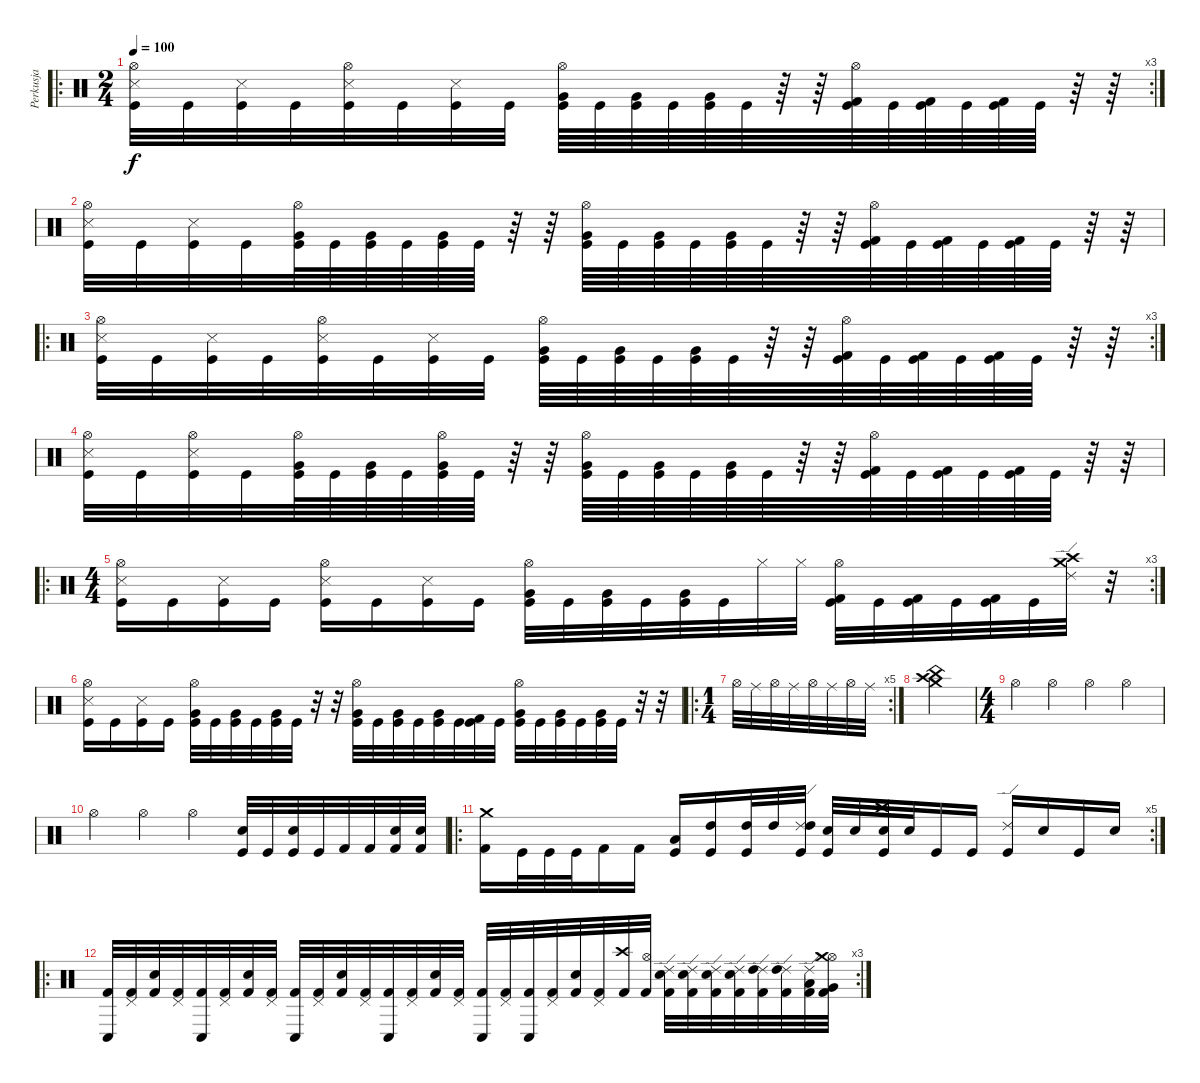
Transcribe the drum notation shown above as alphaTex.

\track ("Perkusja" "Perkusja") {instrument percussion}
\staff {score}
\articulation defaults
\ro
\rc 3
\ts (2 4)
\tempo 100
\clef neutral
\ks c
("Hi-Hat (open)" "Metronome (hit)" "Kick (hit)").32{dy f} "Kick (hit)".32 ("Metronome (hit)" "Kick (hit)").32 "Kick (hit)".32 ("Hi-Hat (open)" "Metronome (hit)" "Kick (hit)").32 "Kick (hit)".32 ("Metronome (hit)" "Kick (hit)").32 "Kick (hit)".32 ("Hi-Hat (open)" "Very Low Tom (hit)" "Kick (hit)").64 "Kick (hit)".64 ("Very Low Tom (hit)" "Kick (hit)").64 "Kick (hit)".64 ("Very Low Tom (hit)" "Kick (hit)").64 "Kick (hit)".64 r.64 r.64 ("Hi-Hat (open)" "Kick (hit) 2" "Kick (hit)").64 "Kick (hit)".64 ("Kick (hit) 2" "Kick (hit)").64 "Kick (hit)".64 ("Kick (hit) 2" "Kick (hit)").64 "Kick (hit)".64 r.64 r.64 |
("Hi-Hat (open)" "Metronome (hit)" "Kick (hit)").32 "Kick (hit)".32 ("Metronome (hit)" "Kick (hit)").32 "Kick (hit)".32 ("Hi-Hat (open)" "Very Low Tom (hit)" "Kick (hit)").64 "Kick (hit)".64 ("Very Low Tom (hit)" "Kick (hit)").64 "Kick (hit)".64 ("Very Low Tom (hit)" "Kick (hit)").64 "Kick (hit)".64 r.64 r.64 ("Hi-Hat (open)" "Very Low Tom (hit)" "Kick (hit)").64 "Kick (hit)".64 ("Very Low Tom (hit)" "Kick (hit)").64 "Kick (hit)".64 ("Very Low Tom (hit)" "Kick (hit)").64 "Kick (hit)".64 r.64 r.64 ("Hi-Hat (open)" "Kick (hit) 2" "Kick (hit)").64 "Kick (hit)".64 ("Kick (hit) 2" "Kick (hit)").64 "Kick (hit)".64 ("Kick (hit) 2" "Kick (hit)").64 "Kick (hit)".64 r.64 r.64 |
\ro
\rc 3
("Hi-Hat (open)" "Metronome (hit)" "Kick (hit)").32 "Kick (hit)".32 ("Metronome (hit)" "Kick (hit)").32 "Kick (hit)".32 ("Hi-Hat (open)" "Metronome (hit)" "Kick (hit)").32 "Kick (hit)".32 ("Metronome (hit)" "Kick (hit)").32 "Kick (hit)".32 ("Hi-Hat (open)" "Very Low Tom (hit)" "Kick (hit)").64 "Kick (hit)".64 ("Very Low Tom (hit)" "Kick (hit)").64 "Kick (hit)".64 ("Very Low Tom (hit)" "Kick (hit)").64 "Kick (hit)".64 r.64 r.64 ("Hi-Hat (open)" "Kick (hit) 2" "Kick (hit)").64 "Kick (hit)".64 ("Kick (hit) 2" "Kick (hit)").64 "Kick (hit)".64 ("Kick (hit) 2" "Kick (hit)").64 "Kick (hit)".64 r.64 r.64 |
("Hi-Hat (open)" "Metronome (hit)" "Kick (hit)").32 "Kick (hit)".32 ("Hi-Hat (open)" "Metronome (hit)" "Kick (hit)").32 "Kick (hit)".32 ("Hi-Hat (open)" "Very Low Tom (hit)" "Kick (hit)").64 "Kick (hit)".64 ("Very Low Tom (hit)" "Kick (hit)").64 "Kick (hit)".64 ("Hi-Hat (open)" "Very Low Tom (hit)" "Kick (hit)").64 "Kick (hit)".64 r.64 r.64 ("Hi-Hat (open)" "Very Low Tom (hit)" "Kick (hit)").64 "Kick (hit)".64 ("Very Low Tom (hit)" "Kick (hit)").64 "Kick (hit)".64 ("Very Low Tom (hit)" "Kick (hit)").64 "Kick (hit)".64 r.64 r.64 ("Hi-Hat (open)" "Kick (hit) 2" "Kick (hit)").64 "Kick (hit)".64 ("Kick (hit) 2" "Kick (hit)").64 "Kick (hit)".64 ("Kick (hit) 2" "Kick (hit)").64 "Kick (hit)".64 r.64 r.64 |
\ro
\rc 3
\ts (4 4)
("Hi-Hat (open)" "Metronome (hit)" "Kick (hit)").16 "Kick (hit)".16 ("Metronome (hit)" "Kick (hit)").16 "Kick (hit)".16 ("Hi-Hat (open)" "Metronome (hit)" "Kick (hit)").16 "Kick (hit)".16 ("Metronome (hit)" "Kick (hit)").16 "Kick (hit)".16 ("Hi-Hat (open)" "Very Low Tom (hit)" "Kick (hit)").32 "Kick (hit)".32 ("Very Low Tom (hit)" "Kick (hit)").32 "Kick (hit)".32 ("Very Low Tom (hit)" "Kick (hit)").32 "Kick (hit)".32 "Hi-Hat (closed)".32 "Hi-Hat (closed)".32 ("Hi-Hat (open)" "Kick (hit) 2" "Kick (hit)").32 "Kick (hit)".32 ("Kick (hit) 2" "Kick (hit)").32 "Kick (hit)".32 ("Kick (hit) 2" "Kick (hit)").32 "Kick (hit)".32 ("Ride (edge) 2" "Crash high (hit)" "Crash medium (hit)").32 r.32 |
("Hi-Hat (open)" "Metronome (hit)" "Kick (hit)").16 "Kick (hit)".16 ("Metronome (hit)" "Kick (hit)").16 "Kick (hit)".16 ("Hi-Hat (open)" "Very Low Tom (hit)" "Kick (hit)").32 "Kick (hit)".32 ("Very Low Tom (hit)" "Kick (hit)").32 "Kick (hit)".32 ("Very Low Tom (hit)" "Kick (hit)").32 "Kick (hit)".32 r.32 r.32 ("Hi-Hat (open)" "Very Low Tom (hit)" "Kick (hit)").32 "Kick (hit)".32 ("Very Low Tom (hit)" "Kick (hit)").32 "Kick (hit)".32 ("Very Low Tom (hit)" "Kick (hit)").32 "Kick (hit)".32 ("Kick (hit) 2" "Kick (hit)").32 "Kick (hit)".32 ("Hi-Hat (open)" "Very Low Tom (hit)" "Kick (hit)").32 "Kick (hit)".32 ("Very Low Tom (hit)" "Kick (hit)").32 "Kick (hit)".32 ("Very Low Tom (hit)" "Kick (hit)").32 "Kick (hit)".32 r.32 r.32 |
\ro
\rc 5
\ts (1 4)
"Hi-Hat (open)".32 "Ride (middle)".32 "Hi-Hat (open)".32 "Ride (middle)".32 "Hi-Hat (open)".32 "Ride (middle)".32 "Hi-Hat (open)".32 "Ride (middle)".32 |
("China (hit)" "Crash high (hit)" "Crash medium (hit)").4 |
\ts (4 4)
"Hi-Hat (open)".4 "Hi-Hat (open)".4 "Hi-Hat (open)".4 "Hi-Hat (open)".4 |
"Hi-Hat (open)".4 "Hi-Hat (open)".4 "Hi-Hat (open)".4 ("Electric Snare (hit)" "Kick (hit)").32 "Kick (hit)".32 ("Electric Snare (hit)" "Kick (hit)").32 "Kick (hit)".32 "Kick (hit) 2".32 "Kick (hit) 2".32 ("Electric Snare (hit)" "Kick (hit) 2").32 ("Electric Snare (hit)" "Kick (hit) 2").32 |
\ro
\rc 5
("Crash medium (hit)" "Kick (hit) 2").16 "Kick (hit)".32 "Kick (hit)".32 "Kick (hit)".32 "Kick (hit) 2".16 "Kick (hit) 2".16 ("Kick (hit)" "Low Tom (hit)").16 ("Kick (hit)" "High Tom (hit)").16 ("Kick (hit)" "High Tom (hit)").32 "High Tom (hit)".32 ("Ride (edge) 2" "Kick (hit)" "High Tom (hit)").32 ("Kick (hit)" "Electric Snare (hit)").32 "Electric Snare (hit)".32 ("Crash high (hit)" "Kick (hit)" "Electric Snare (hit)").32 "Electric Snare (hit)".32 "Kick (hit)".16 "Kick (hit)".16 ("Ride (edge) 2" "Kick (hit)").16 "Electric Snare (hit)".16 "Kick (hit)".16 "Electric Snare (hit)".16 |
\ro
\rc 3
("Conga low (hit)" "Kick (hit) 2").32 ("Pedal Hi-Hat (hit)" "Kick (hit) 2").32 ("Electric Snare (hit)" "Kick (hit) 2").32 ("Pedal Hi-Hat (hit)" "Kick (hit) 2").32 ("Conga low (hit)" "Kick (hit) 2").32 ("Pedal Hi-Hat (hit)" "Kick (hit) 2").32 ("Electric Snare (hit)" "Kick (hit) 2").32 ("Pedal Hi-Hat (hit)" "Kick (hit) 2").32 ("Conga low (hit)" "Kick (hit) 2").32 ("Pedal Hi-Hat (hit)" "Kick (hit) 2").32 ("Electric Snare (hit)" "Kick (hit) 2").32 ("Pedal Hi-Hat (hit)" "Kick (hit) 2").32 ("Conga low (hit)" "Kick (hit) 2").32 ("Pedal Hi-Hat (hit)" "Kick (hit) 2").32 ("Electric Snare (hit)" "Kick (hit) 2").32 ("Pedal Hi-Hat (hit)" "Kick (hit) 2").32 ("Conga low (hit)" "Kick (hit) 2").32 ("Pedal Hi-Hat (hit)" "Kick (hit) 2").32 ("Conga low (hit)" "Kick (hit) 2").32 ("Pedal Hi-Hat (hit)" "Kick (hit) 2").32 ("Electric Snare (hit)" "Kick (hit) 2").32 ("Pedal Hi-Hat (hit)" "Kick (hit) 2").32 ("Crash high (hit)" "Kick (hit) 2").32 ("Hi-Hat (open)" "Kick (hit) 2").32 ("Ride (edge) 2" "Electric Snare (hit)" "Kick (hit) 2").32 ("Ride (edge) 2" "Electric Snare (hit)" "Kick (hit) 2").32 ("Ride (edge) 2" "Electric Snare (hit)" "Kick (hit) 2").32 ("Ride (edge) 2" "Electric Snare (hit)" "Kick (hit) 2").32 ("Ride (edge) 2" "High Tom (hit)" "Kick (hit) 2").32 ("Ride (edge) 2" "High Tom (hit)" "Kick (hit) 2").32 ("Ride (edge) 2" "Low Tom (hit)" "Kick (hit) 2").32 ("Hi-Hat (open)" "Crash medium (hit)" "Very Low Tom (hit)" "Kick (hit) 2").32
